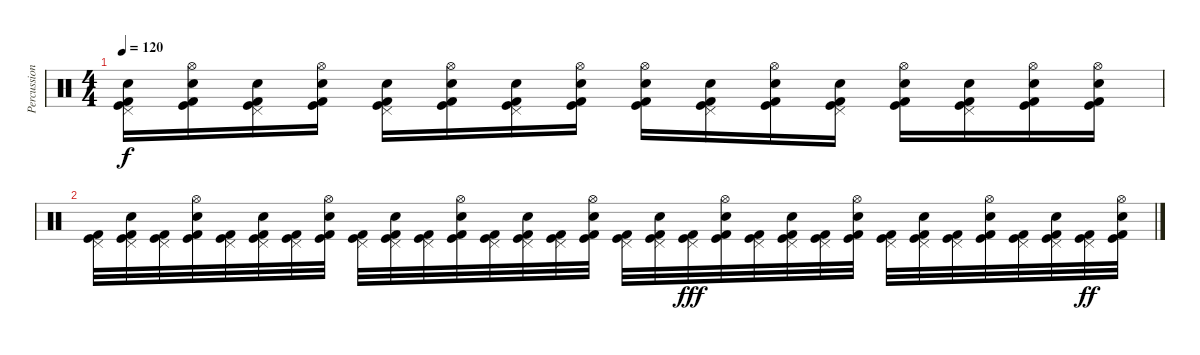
\track ("Percussions" "Percussion") {instrument percussion}
\staff {score}
\articulation defaults
\ts (4 4)
\tempo 120
\clef neutral
\ks c
("Pedal Hi-Hat (hit)" "Electric Snare (hit)" "Kick (hit)" "Kick (hit) 2").16{dy f} ("Hi-Hat (open)" "Electric Snare (hit)" "Kick (hit)" "Kick (hit) 2").16 ("Pedal Hi-Hat (hit)" "Electric Snare (hit)" "Kick (hit)" "Kick (hit) 2").16 ("Hi-Hat (open)" "Electric Snare (hit)" "Kick (hit)" "Kick (hit) 2").16 ("Pedal Hi-Hat (hit)" "Electric Snare (hit)" "Kick (hit)" "Kick (hit) 2").16 ("Hi-Hat (open)" "Electric Snare (hit)" "Kick (hit)" "Kick (hit) 2").16 ("Pedal Hi-Hat (hit)" "Electric Snare (hit)" "Kick (hit)" "Kick (hit) 2").16 ("Hi-Hat (open)" "Electric Snare (hit)" "Kick (hit)" "Kick (hit) 2").16 ("Hi-Hat (open)" "Electric Snare (hit)" "Kick (hit)" "Kick (hit) 2").16 ("Pedal Hi-Hat (hit)" "Electric Snare (hit)" "Kick (hit)" "Kick (hit) 2").16 ("Hi-Hat (open)" "Electric Snare (hit)" "Kick (hit)" "Kick (hit) 2").16 ("Pedal Hi-Hat (hit)" "Electric Snare (hit)" "Kick (hit)" "Kick (hit) 2").16 ("Hi-Hat (open)" "Electric Snare (hit)" "Kick (hit)" "Kick (hit) 2").16 ("Pedal Hi-Hat (hit)" "Electric Snare (hit)" "Kick (hit)" "Kick (hit) 2").16 ("Hi-Hat (open)" "Electric Snare (hit)" "Kick (hit)" "Kick (hit) 2").16 ("Hi-Hat (open)" "Electric Snare (hit)" "Kick (hit)" "Kick (hit) 2").16 |
("Pedal Hi-Hat (hit)" "Kick (hit)" "Kick (hit) 2").32 ("Pedal Hi-Hat (hit)" "Electric Snare (hit)" "Kick (hit)" "Kick (hit) 2").32 ("Pedal Hi-Hat (hit)" "Kick (hit)" "Kick (hit) 2").32 ("Hi-Hat (open)" "Electric Snare (hit)" "Kick (hit)" "Kick (hit) 2").32 ("Pedal Hi-Hat (hit)" "Kick (hit)" "Kick (hit) 2").32 ("Pedal Hi-Hat (hit)" "Electric Snare (hit)" "Kick (hit)" "Kick (hit) 2").32 ("Pedal Hi-Hat (hit)" "Kick (hit)" "Kick (hit) 2").32 ("Hi-Hat (open)" "Electric Snare (hit)" "Kick (hit)" "Kick (hit) 2").32 ("Pedal Hi-Hat (hit)" "Kick (hit)" "Kick (hit) 2").32 ("Pedal Hi-Hat (hit)" "Electric Snare (hit)" "Kick (hit)" "Kick (hit) 2").32 ("Pedal Hi-Hat (hit)" "Kick (hit)" "Kick (hit) 2").32 ("Hi-Hat (open)" "Electric Snare (hit)" "Kick (hit)" "Kick (hit) 2").32 ("Pedal Hi-Hat (hit)" "Kick (hit)" "Kick (hit) 2").32 ("Pedal Hi-Hat (hit)" "Electric Snare (hit)" "Kick (hit)" "Kick (hit) 2").32 ("Pedal Hi-Hat (hit)" "Kick (hit)" "Kick (hit) 2").32 ("Hi-Hat (open)" "Electric Snare (hit)" "Kick (hit)" "Kick (hit) 2").32 ("Pedal Hi-Hat (hit)" "Kick (hit)" "Kick (hit) 2").32 ("Pedal Hi-Hat (hit)" "Electric Snare (hit)" "Kick (hit)" "Kick (hit) 2").32 ("Pedal Hi-Hat (hit)" "Kick (hit)" "Kick (hit) 2").32{dy fff} ("Hi-Hat (open)" "Electric Snare (hit)" "Kick (hit)" "Kick (hit) 2").32 ("Pedal Hi-Hat (hit)" "Kick (hit)" "Kick (hit) 2").32 ("Pedal Hi-Hat (hit)" "Electric Snare (hit)" "Kick (hit)" "Kick (hit) 2").32 ("Pedal Hi-Hat (hit)" "Kick (hit)" "Kick (hit) 2").32 ("Hi-Hat (open)" "Electric Snare (hit)" "Kick (hit)" "Kick (hit) 2").32 ("Pedal Hi-Hat (hit)" "Kick (hit)" "Kick (hit) 2").32 ("Pedal Hi-Hat (hit)" "Electric Snare (hit)" "Kick (hit)" "Kick (hit) 2").32 ("Pedal Hi-Hat (hit)" "Kick (hit)" "Kick (hit) 2").32 ("Hi-Hat (open)" "Electric Snare (hit)" "Kick (hit)" "Kick (hit) 2").32 ("Pedal Hi-Hat (hit)" "Kick (hit)" "Kick (hit) 2").32 ("Pedal Hi-Hat (hit)" "Electric Snare (hit)" "Kick (hit)" "Kick (hit) 2").32 ("Pedal Hi-Hat (hit)" "Kick (hit)" "Kick (hit) 2").32{dy ff} ("Hi-Hat (open)" "Electric Snare (hit)" "Kick (hit)" "Kick (hit) 2").32
